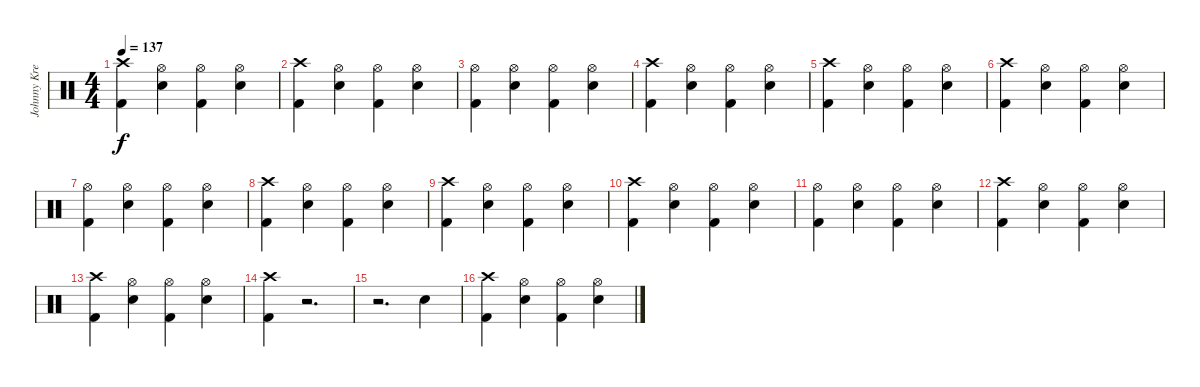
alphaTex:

\track ("Johnny Kreis" "Johnny Kre") {instrument percussion}
\staff {score}
\articulation defaults
\ts (4 4)
\tempo 137
\clef neutral
\ks c
("Crash high (hit)" "Kick (hit) 2").4{dy f} ("Hi-Hat (open)" "Snare (hit) 2").4 ("Hi-Hat (open)" "Kick (hit) 2").4 ("Hi-Hat (open)" "Snare (hit) 2").4 |
("Crash high (hit)" "Kick (hit) 2").4 ("Hi-Hat (open)" "Snare (hit) 2").4 ("Hi-Hat (open)" "Kick (hit) 2").4 ("Hi-Hat (open)" "Snare (hit) 2").4 |
("Hi-Hat (open)" "Kick (hit) 2").4 ("Hi-Hat (open)" "Snare (hit) 2").4 ("Hi-Hat (open)" "Kick (hit) 2").4 ("Hi-Hat (open)" "Snare (hit) 2").4 |
("Crash high (hit)" "Kick (hit) 2").4 ("Hi-Hat (open)" "Snare (hit) 2").4 ("Hi-Hat (open)" "Kick (hit) 2").4 ("Hi-Hat (open)" "Snare (hit) 2").4 |
("Crash high (hit)" "Kick (hit) 2").4 ("Hi-Hat (open)" "Snare (hit) 2").4 ("Hi-Hat (open)" "Kick (hit) 2").4 ("Hi-Hat (open)" "Snare (hit) 2").4 |
("Crash high (hit)" "Kick (hit) 2").4 ("Hi-Hat (open)" "Snare (hit) 2").4 ("Hi-Hat (open)" "Kick (hit) 2").4 ("Hi-Hat (open)" "Snare (hit) 2").4 |
("Hi-Hat (open)" "Kick (hit) 2").4 ("Hi-Hat (open)" "Snare (hit) 2").4 ("Hi-Hat (open)" "Kick (hit) 2").4 ("Hi-Hat (open)" "Snare (hit) 2").4 |
("Crash high (hit)" "Kick (hit) 2").4 ("Hi-Hat (open)" "Snare (hit) 2").4 ("Hi-Hat (open)" "Kick (hit) 2").4 ("Hi-Hat (open)" "Snare (hit) 2").4 |
("Crash high (hit)" "Kick (hit) 2").4 ("Hi-Hat (open)" "Snare (hit) 2").4 ("Hi-Hat (open)" "Kick (hit) 2").4 ("Hi-Hat (open)" "Snare (hit) 2").4 |
("Crash high (hit)" "Kick (hit) 2").4 ("Hi-Hat (open)" "Snare (hit) 2").4 ("Hi-Hat (open)" "Kick (hit) 2").4 ("Hi-Hat (open)" "Snare (hit) 2").4 |
("Hi-Hat (open)" "Kick (hit) 2").4 ("Hi-Hat (open)" "Snare (hit) 2").4 ("Hi-Hat (open)" "Kick (hit) 2").4 ("Hi-Hat (open)" "Snare (hit) 2").4 |
("Crash high (hit)" "Kick (hit) 2").4 ("Hi-Hat (open)" "Snare (hit) 2").4 ("Hi-Hat (open)" "Kick (hit) 2").4 ("Hi-Hat (open)" "Snare (hit) 2").4 |
("Crash high (hit)" "Kick (hit) 2").4 ("Hi-Hat (open)" "Snare (hit) 2").4 ("Hi-Hat (open)" "Kick (hit) 2").4 ("Hi-Hat (open)" "Snare (hit) 2").4 |
("Crash high (hit)" "Kick (hit) 2").4 r.2{d} |
r.2{d} "Snare (hit) 2".4 |
("Crash high (hit)" "Kick (hit) 2").4 ("Hi-Hat (open)" "Snare (hit) 2").4 ("Hi-Hat (open)" "Kick (hit) 2").4 ("Hi-Hat (open)" "Snare (hit) 2").4
